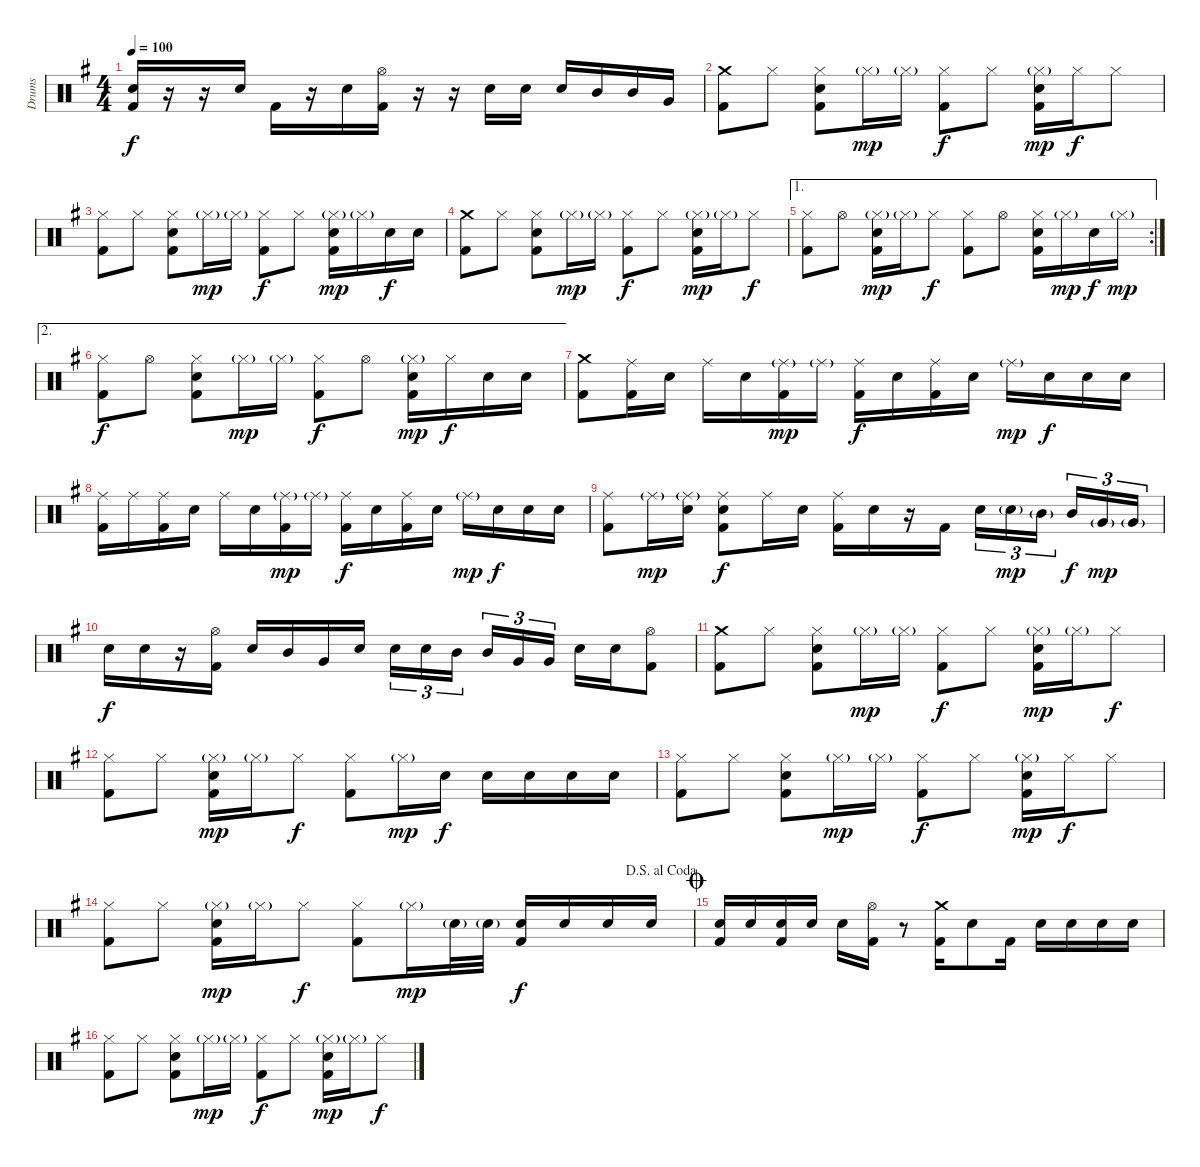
\track ("Drums" "Drums") {instrument percussion}
\staff {score}
\articulation defaults
\ts (4 4)
\tempo 100
\clef neutral
\ks eminor
("Snare (hit) 2" "Kick (hit) 2").16{dy f} r.16 r.16 "Snare (hit) 2".16 "Kick (hit) 2".16 r.16 "Snare (hit) 2".16 ("Hi-Hat (open)" "Kick (hit) 2").16 r.16 r.16 "Snare (hit) 2".16 "Snare (hit) 2".16 "Snare (hit) 2".16 "Mid Tom (hit)".16 "Mid Tom (hit)".16 "Very Low Tom (hit)".16 |
("Crash medium (hit)" "Kick (hit) 2").8 "Hi-Hat (closed)".8 ("Hi-Hat (closed)" "Snare (hit) 2" "Kick (hit) 2").8 "Hi-Hat (closed)"{g}.16{dy mp} "Hi-Hat (closed)"{g}.16 ("Hi-Hat (closed)" "Kick (hit) 2").8{dy f} "Hi-Hat (closed)".8 ("Hi-Hat (closed)"{g} "Snare (hit) 2" "Kick (hit) 2").16{dy mp} "Hi-Hat (closed)".16{dy f} "Hi-Hat (closed)".8 |
("Hi-Hat (closed)" "Kick (hit) 2").8 "Hi-Hat (closed)".8 ("Hi-Hat (closed)" "Snare (hit) 2" "Kick (hit) 2").8 "Hi-Hat (closed)"{g}.16{dy mp} "Hi-Hat (closed)"{g}.16 ("Hi-Hat (closed)" "Kick (hit) 2").8{dy f} "Hi-Hat (closed)".8 ("Hi-Hat (closed)"{g} "Snare (hit) 2" "Kick (hit) 2").16{dy mp} "Hi-Hat (closed)"{g}.16 "Snare (hit) 2".16{dy f} "Snare (hit) 2".16 |
("Crash medium (hit)" "Kick (hit) 2").8 "Hi-Hat (closed)".8 ("Hi-Hat (closed)" "Snare (hit) 2" "Kick (hit) 2").8 "Hi-Hat (closed)"{g}.16{dy mp} "Hi-Hat (closed)"{g}.16 ("Hi-Hat (closed)" "Kick (hit) 2").8{dy f} "Hi-Hat (closed)".8 ("Hi-Hat (closed)"{g} "Snare (hit) 2" "Kick (hit) 2").16{dy mp} "Hi-Hat (closed)"{g}.16 "Hi-Hat (closed)".8{dy f} |
\ae 1
\rc 2
("Hi-Hat (closed)" "Kick (hit) 2").8 "Hi-Hat (open)".8 ("Hi-Hat (closed)"{g} "Snare (hit) 2" "Kick (hit) 2").16{dy mp} "Hi-Hat (closed)"{g}.16 "Hi-Hat (closed)".8{dy f} ("Hi-Hat (closed)" "Kick (hit) 2").8 "Hi-Hat (open)".8 ("Hi-Hat (closed)" "Snare (hit) 2" "Kick (hit) 2").16 "Hi-Hat (closed)"{g}.16{dy mp} "Snare (hit) 2".16{dy f} "Hi-Hat (closed)"{g}.16{dy mp} |
\ae 2
("Hi-Hat (closed)" "Kick (hit) 2").8{dy f} "Hi-Hat (open)".8 ("Hi-Hat (closed)" "Snare (hit) 2" "Kick (hit) 2").8 "Hi-Hat (closed)"{g}.16{dy mp} "Hi-Hat (closed)"{g}.16 ("Hi-Hat (closed)" "Kick (hit) 2").8{dy f} "Hi-Hat (open)".8 ("Hi-Hat (closed)"{g} "Snare (hit) 2" "Kick (hit) 2").16{dy mp} "Hi-Hat (closed)".16{dy f} "Snare (hit) 2".16 "Snare (hit) 2".16 |
("Crash medium (hit)" "Kick (hit) 2").8 ("Ride (middle)" "Kick (hit) 2").16 "Snare (hit) 2".16 "Ride (middle)".16 "Snare (hit) 2".16 ("Ride (middle)"{g} "Kick (hit) 2").16{dy mp} "Ride (middle)"{g}.16 ("Ride (middle)" "Kick (hit) 2").16{dy f} "Snare (hit) 2".16 ("Ride (middle)" "Kick (hit) 2").16 "Snare (hit) 2".16 "Ride (middle)"{g}.16{dy mp} "Snare (hit) 2".16{dy f} "Snare (hit) 2".16 "Snare (hit) 2".16 |
("Ride (middle)" "Kick (hit) 2").16 "Ride (middle)".16 ("Ride (middle)" "Kick (hit) 2").16 "Snare (hit) 2".16 "Ride (middle)".16 "Snare (hit) 2".16 ("Ride (middle)"{g} "Kick (hit) 2").16{dy mp} "Ride (middle)"{g}.16 ("Ride (middle)" "Kick (hit) 2").16{dy f} "Snare (hit) 2".16 ("Ride (middle)" "Kick (hit) 2").16 "Snare (hit) 2".16 "Ride (middle)"{g}.16{dy mp} "Snare (hit) 2".16{dy f} "Snare (hit) 2".16 "Snare (hit) 2".16 |
("Ride (middle)" "Kick (hit) 2").8 "Ride (middle)"{g}.16{dy mp} ("Ride (middle)"{g} "Snare (hit) 2").16 ("Ride (middle)" "Snare (hit) 2" "Kick (hit) 2").8{dy f} "Ride (middle)".16 "Snare (hit) 2".16 ("Ride (middle)" "Kick (hit) 2").16 "Snare (hit) 2".16 r.16 "Kick (hit) 2".16 "Snare (hit) 2".16{tu (3 2)} "Snare (hit) 2"{g}.16{tu (3 2) dy mp} "Mid Tom (hit)"{g}.16{tu (3 2) beam splitsecondary} "Mid Tom (hit)".16{tu (3 2) dy f} "Very Low Tom (hit)"{g}.16{tu (3 2) dy mp} "Very Low Tom (hit)"{g}.16{tu (3 2)} |
"Snare (hit) 2".16{dy f} "Snare (hit) 2".16 r.16 ("Hi-Hat (open)" "Kick (hit) 2").16 "Snare (hit) 2".16 "Mid Tom (hit)".16 "Very Low Tom (hit)".16 "Snare (hit) 2".16 "Snare (hit) 2".16{tu (3 2)} "Snare (hit) 2".16{tu (3 2)} "Mid Tom (hit)".16{tu (3 2) beam splitsecondary} "Mid Tom (hit)".16{tu (3 2)} "Very Low Tom (hit)".16{tu (3 2)} "Very Low Tom (hit)".16{tu (3 2)} "Snare (hit) 2".16 "Snare (hit) 2".16 ("Hi-Hat (open)" "Kick (hit) 2").8 |
("Crash medium (hit)" "Kick (hit) 2").8 "Hi-Hat (closed)".8 ("Hi-Hat (closed)" "Snare (hit) 2" "Kick (hit) 2").8 "Hi-Hat (closed)"{g}.16{dy mp} "Hi-Hat (closed)"{g}.16 ("Hi-Hat (closed)" "Kick (hit) 2").8{dy f} "Hi-Hat (closed)".8 ("Hi-Hat (closed)"{g} "Snare (hit) 2" "Kick (hit) 2").16{dy mp} "Hi-Hat (closed)"{g}.16 "Hi-Hat (closed)".8{dy f} |
("Hi-Hat (closed)" "Kick (hit) 2").8 "Hi-Hat (closed)".8 ("Hi-Hat (closed)"{g} "Snare (hit) 2" "Kick (hit) 2").16{dy mp} "Hi-Hat (closed)"{g}.16 "Hi-Hat (closed)".8{dy f} ("Hi-Hat (closed)" "Kick (hit) 2").8 "Hi-Hat (closed)"{g}.16{dy mp} "Snare (hit) 2".16{dy f} "Snare (hit) 2".16 "Snare (hit) 2".16 "Snare (hit) 2".16 "Snare (hit) 2".16 |
("Hi-Hat (closed)" "Kick (hit) 2").8 "Hi-Hat (closed)".8 ("Hi-Hat (closed)" "Snare (hit) 2" "Kick (hit) 2").8 "Hi-Hat (closed)"{g}.16{dy mp} "Hi-Hat (closed)"{g}.16 ("Hi-Hat (closed)" "Kick (hit) 2").8{dy f} "Hi-Hat (closed)".8 ("Hi-Hat (closed)"{g} "Snare (hit) 2" "Kick (hit) 2").16{dy mp} "Hi-Hat (closed)".16{dy f} "Hi-Hat (closed)".8 |
\jump dalsegnoalcoda
("Hi-Hat (closed)" "Kick (hit) 2").8 "Hi-Hat (closed)".8 ("Hi-Hat (closed)"{g} "Snare (hit) 2" "Kick (hit) 2").16{dy mp} "Hi-Hat (closed)"{g}.16 "Hi-Hat (closed)".8{dy f} ("Hi-Hat (closed)" "Kick (hit) 2").8 "Hi-Hat (closed)"{g}.16{dy mp} "Snare (hit) 2"{g}.32 "Snare (hit) 2"{g}.32 ("Snare (hit) 2" "Kick (hit) 2").16{dy f} "Snare (hit) 2".16 "Snare (hit) 2".16 "Snare (hit) 2".16 |
\jump coda
("Snare (hit) 2" "Kick (hit) 2").16 "Snare (hit) 2".16 ("Snare (hit) 2" "Kick (hit) 2").16 "Snare (hit) 2".16 "Snare (hit) 2".16 ("Hi-Hat (open)" "Kick (hit) 2").16 r.8 ("Crash medium (hit)" "Kick (hit) 2").16 "Snare (hit) 2".8 "Kick (hit) 2".16 "Snare (hit) 2".16 "Snare (hit) 2".16 "Snare (hit) 2".16 "Snare (hit) 2".16 |
("Hi-Hat (closed)" "Kick (hit) 2").8 "Hi-Hat (closed)".8 ("Hi-Hat (closed)" "Snare (hit) 2" "Kick (hit) 2").8 "Hi-Hat (closed)"{g}.16{dy mp} "Hi-Hat (closed)"{g}.16 ("Hi-Hat (closed)" "Kick (hit) 2").8{dy f} "Hi-Hat (closed)".8 ("Hi-Hat (closed)"{g} "Snare (hit) 2" "Kick (hit) 2").16{dy mp} "Hi-Hat (closed)"{g}.16 "Hi-Hat (closed)".8{dy f}
